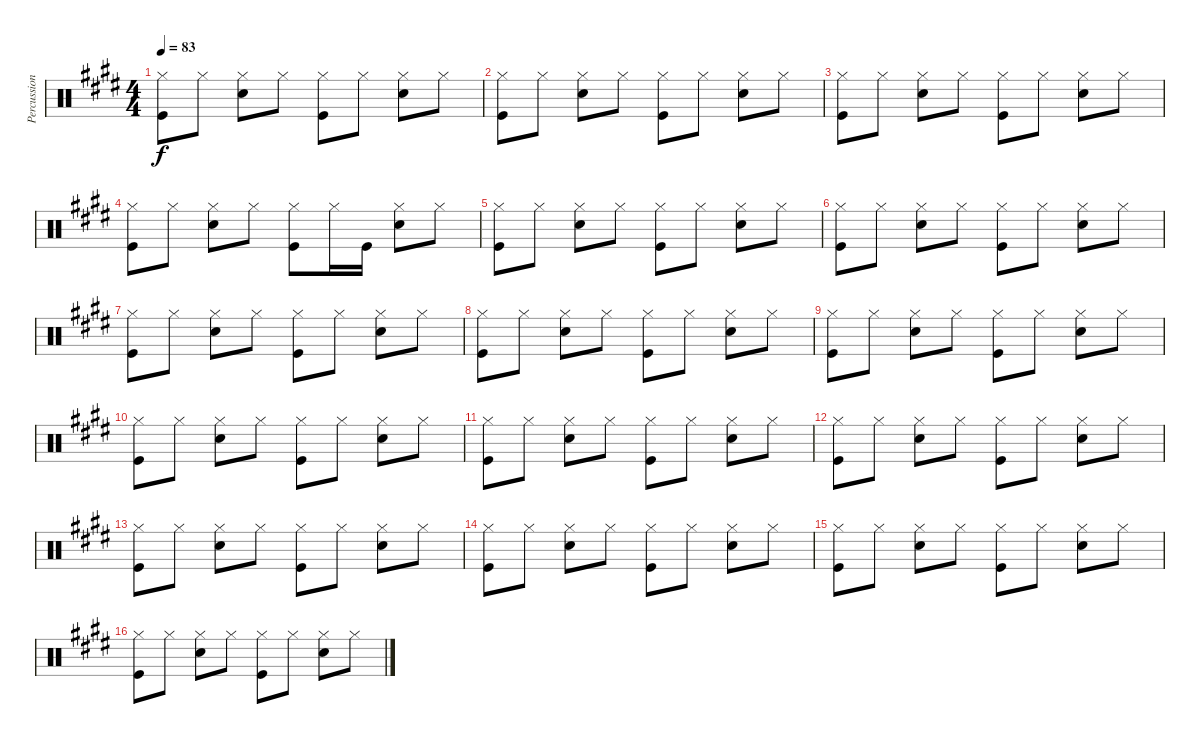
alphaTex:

\track ("Percussion" "Percussion") {instrument percussion}
\staff {score}
\articulation defaults
\ts (4 4)
\tempo 83
\clef neutral
\ks e
("Kick (hit)" "Hi-Hat (closed)").8{dy f} "Hi-Hat (closed)".8 ("Hi-Hat (closed)" "Snare (hit) 2").8 "Hi-Hat (closed)".8 ("Hi-Hat (closed)" "Kick (hit)").8 "Hi-Hat (closed)".8 ("Hi-Hat (closed)" "Snare (hit) 2").8 "Hi-Hat (closed)".8 |
("Kick (hit)" "Hi-Hat (closed)").8 "Hi-Hat (closed)".8 ("Hi-Hat (closed)" "Snare (hit) 2").8 "Hi-Hat (closed)".8 ("Hi-Hat (closed)" "Kick (hit)").8 "Hi-Hat (closed)".8 ("Hi-Hat (closed)" "Snare (hit) 2").8 "Hi-Hat (closed)".8 |
("Kick (hit)" "Hi-Hat (closed)").8 "Hi-Hat (closed)".8 ("Hi-Hat (closed)" "Snare (hit) 2").8 "Hi-Hat (closed)".8 ("Hi-Hat (closed)" "Kick (hit)").8 "Hi-Hat (closed)".8 ("Hi-Hat (closed)" "Snare (hit) 2").8 "Hi-Hat (closed)".8 |
("Kick (hit)" "Hi-Hat (closed)").8 "Hi-Hat (closed)".8 ("Hi-Hat (closed)" "Snare (hit) 2").8 "Hi-Hat (closed)".8 ("Hi-Hat (closed)" "Kick (hit)").8 "Hi-Hat (closed)".16 "Kick (hit)".16 ("Snare (hit) 2" "Hi-Hat (closed)").8 "Hi-Hat (closed)".8 |
("Kick (hit)" "Hi-Hat (closed)").8 "Hi-Hat (closed)".8 ("Hi-Hat (closed)" "Snare (hit) 2").8 "Hi-Hat (closed)".8 ("Hi-Hat (closed)" "Kick (hit)").8 "Hi-Hat (closed)".8 ("Hi-Hat (closed)" "Snare (hit) 2").8 "Hi-Hat (closed)".8 |
("Kick (hit)" "Hi-Hat (closed)").8 "Hi-Hat (closed)".8 ("Hi-Hat (closed)" "Snare (hit) 2").8 "Hi-Hat (closed)".8 ("Hi-Hat (closed)" "Kick (hit)").8 "Hi-Hat (closed)".8 ("Hi-Hat (closed)" "Snare (hit) 2").8 "Hi-Hat (closed)".8 |
("Kick (hit)" "Hi-Hat (closed)").8 "Hi-Hat (closed)".8 ("Hi-Hat (closed)" "Snare (hit) 2").8 "Hi-Hat (closed)".8 ("Hi-Hat (closed)" "Kick (hit)").8 "Hi-Hat (closed)".8 ("Hi-Hat (closed)" "Snare (hit) 2").8 "Hi-Hat (closed)".8 |
("Kick (hit)" "Hi-Hat (closed)").8 "Hi-Hat (closed)".8 ("Hi-Hat (closed)" "Snare (hit) 2").8 "Hi-Hat (closed)".8 ("Hi-Hat (closed)" "Kick (hit)").8 "Hi-Hat (closed)".8 ("Hi-Hat (closed)" "Snare (hit) 2").8 "Hi-Hat (closed)".8 |
("Kick (hit)" "Hi-Hat (closed)").8 "Hi-Hat (closed)".8 ("Hi-Hat (closed)" "Snare (hit) 2").8 "Hi-Hat (closed)".8 ("Hi-Hat (closed)" "Kick (hit)").8 "Hi-Hat (closed)".8 ("Hi-Hat (closed)" "Snare (hit) 2").8 "Hi-Hat (closed)".8 |
("Kick (hit)" "Hi-Hat (closed)").8 "Hi-Hat (closed)".8 ("Hi-Hat (closed)" "Snare (hit) 2").8 "Hi-Hat (closed)".8 ("Hi-Hat (closed)" "Kick (hit)").8 "Hi-Hat (closed)".8 ("Hi-Hat (closed)" "Snare (hit) 2").8 "Hi-Hat (closed)".8 |
("Kick (hit)" "Hi-Hat (closed)").8 "Hi-Hat (closed)".8 ("Hi-Hat (closed)" "Snare (hit) 2").8 "Hi-Hat (closed)".8 ("Hi-Hat (closed)" "Kick (hit)").8 "Hi-Hat (closed)".8 ("Hi-Hat (closed)" "Snare (hit) 2").8 "Hi-Hat (closed)".8 |
("Kick (hit)" "Hi-Hat (closed)").8 "Hi-Hat (closed)".8 ("Hi-Hat (closed)" "Snare (hit) 2").8 "Hi-Hat (closed)".8 ("Hi-Hat (closed)" "Kick (hit)").8 "Hi-Hat (closed)".8 ("Hi-Hat (closed)" "Snare (hit) 2").8 "Hi-Hat (closed)".8 |
("Kick (hit)" "Hi-Hat (closed)").8 "Hi-Hat (closed)".8 ("Hi-Hat (closed)" "Snare (hit) 2").8 "Hi-Hat (closed)".8 ("Hi-Hat (closed)" "Kick (hit)").8 "Hi-Hat (closed)".8 ("Hi-Hat (closed)" "Snare (hit) 2").8 "Hi-Hat (closed)".8 |
("Kick (hit)" "Hi-Hat (closed)").8 "Hi-Hat (closed)".8 ("Hi-Hat (closed)" "Snare (hit) 2").8 "Hi-Hat (closed)".8 ("Hi-Hat (closed)" "Kick (hit)").8 "Hi-Hat (closed)".8 ("Hi-Hat (closed)" "Snare (hit) 2").8 "Hi-Hat (closed)".8 |
("Kick (hit)" "Hi-Hat (closed)").8 "Hi-Hat (closed)".8 ("Hi-Hat (closed)" "Snare (hit) 2").8 "Hi-Hat (closed)".8 ("Hi-Hat (closed)" "Kick (hit)").8 "Hi-Hat (closed)".8 ("Hi-Hat (closed)" "Snare (hit) 2").8 "Hi-Hat (closed)".8 |
("Kick (hit)" "Hi-Hat (closed)").8 "Hi-Hat (closed)".8 ("Hi-Hat (closed)" "Snare (hit) 2").8 "Hi-Hat (closed)".8 ("Hi-Hat (closed)" "Kick (hit)").8 "Hi-Hat (closed)".8 ("Hi-Hat (closed)" "Snare (hit) 2").8 "Hi-Hat (closed)".8
